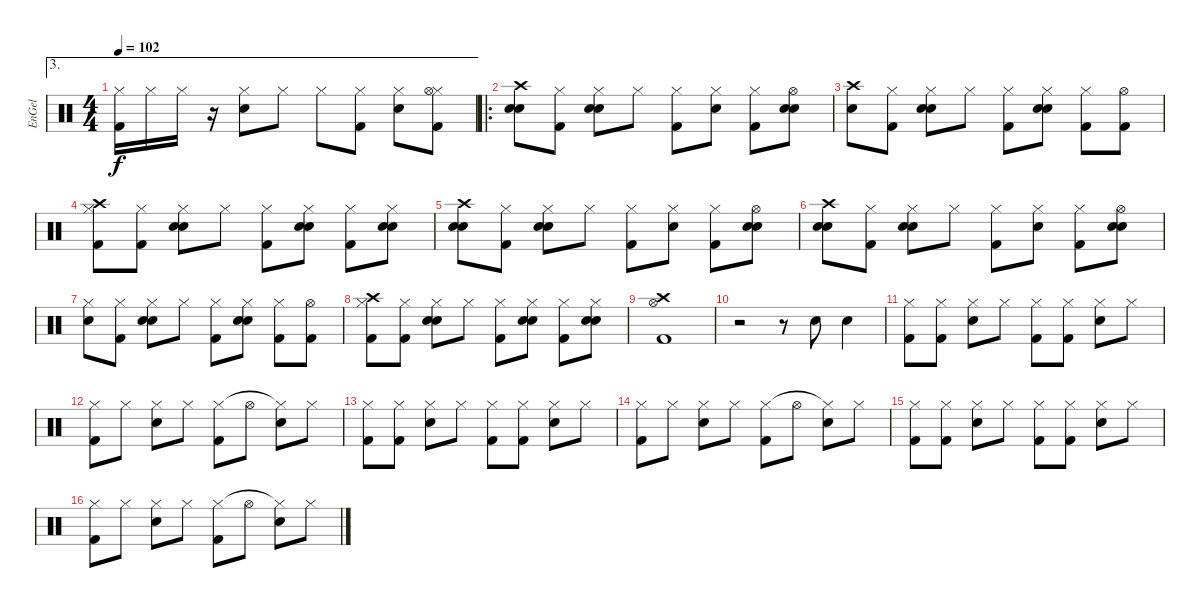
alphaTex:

\track ("EnGel" "EnGel") {instrument percussion}
\staff {score}
\articulation defaults
\ae 3
\ts (4 4)
\tempo 102
\clef neutral
\ks c
("Kick (hit) 2" "Hi-Hat (closed)").16{dy f} "Hi-Hat (closed)".16 "Hi-Hat (closed)".16 r.16 ("Snare (hit) 2" "Hi-Hat (closed)").8 "Hi-Hat (closed)".8 "Hi-Hat (closed)".8 ("Kick (hit) 2" "Hi-Hat (closed)").8 ("Snare (hit) 2" "Hi-Hat (closed)").8 ("Kick (hit) 2" "Hi-Hat (closed)" "Hi-Hat (open)").8 |
\ro
("Snare (hit) 2" "Crash high (hit)" "Electric Snare (hit)").8 ("Kick (hit) 2" "Hi-Hat (closed)").8 ("Electric Snare (hit)" "Hi-Hat (closed)" "Snare (hit) 2").8 "Hi-Hat (closed)".8 ("Kick (hit) 2" "Hi-Hat (closed)").8 ("Snare (hit) 2" "Hi-Hat (closed)").8 ("Kick (hit) 2" "Hi-Hat (closed)").8 ("Electric Snare (hit)" "Hi-Hat (open)" "Snare (hit) 2").8 |
("Snare (hit) 2" "Crash high (hit)").8 ("Kick (hit) 2" "Hi-Hat (closed)").8 ("Snare (hit) 2" "Hi-Hat (closed)" "Electric Snare (hit)").8 "Hi-Hat (closed)".8 ("Kick (hit) 2" "Hi-Hat (closed)").8 ("Snare (hit) 2" "Hi-Hat (closed)" "Electric Snare (hit)").8 ("Kick (hit) 2" "Hi-Hat (closed)").8 ("Kick (hit) 2" "Hi-Hat (open)").8 |
("Kick (hit) 2" "Hi-Hat (closed)" "Crash high (hit)").8 ("Kick (hit) 2" "Hi-Hat (closed)").8 ("Snare (hit) 2" "Hi-Hat (closed)" "Electric Snare (hit)").8 "Hi-Hat (closed)".8 ("Kick (hit) 2" "Hi-Hat (closed)").8 ("Snare (hit) 2" "Hi-Hat (closed)" "Electric Snare (hit)").8 ("Kick (hit) 2" "Hi-Hat (closed)").8 ("Snare (hit) 2" "Hi-Hat (closed)" "Electric Snare (hit)").8 |
("Snare (hit) 2" "Crash high (hit)" "Electric Snare (hit)").8 ("Kick (hit) 2" "Hi-Hat (closed)").8 ("Electric Snare (hit)" "Hi-Hat (closed)" "Snare (hit) 2").8 "Hi-Hat (closed)".8 ("Kick (hit) 2" "Hi-Hat (closed)").8 ("Snare (hit) 2" "Hi-Hat (closed)").8 ("Kick (hit) 2" "Hi-Hat (closed)").8 ("Electric Snare (hit)" "Hi-Hat (open)" "Snare (hit) 2").8 |
("Snare (hit) 2" "Crash high (hit)" "Electric Snare (hit)").8 ("Kick (hit) 2" "Hi-Hat (closed)").8 ("Electric Snare (hit)" "Hi-Hat (closed)" "Snare (hit) 2").8 "Hi-Hat (closed)".8 ("Kick (hit) 2" "Hi-Hat (closed)").8 ("Snare (hit) 2" "Hi-Hat (closed)").8 ("Kick (hit) 2" "Hi-Hat (closed)").8 ("Electric Snare (hit)" "Hi-Hat (open)" "Snare (hit) 2").8 |
("Snare (hit) 2" "Hi-Hat (closed)").8 ("Kick (hit) 2" "Hi-Hat (closed)").8 ("Snare (hit) 2" "Hi-Hat (closed)" "Electric Snare (hit)").8 "Hi-Hat (closed)".8 ("Kick (hit) 2" "Hi-Hat (closed)").8 ("Snare (hit) 2" "Hi-Hat (closed)" "Electric Snare (hit)").8 ("Kick (hit) 2" "Hi-Hat (closed)").8 ("Kick (hit) 2" "Hi-Hat (open)").8 |
("Kick (hit) 2" "Hi-Hat (closed)" "Crash high (hit)").8 ("Kick (hit) 2" "Hi-Hat (closed)").8 ("Snare (hit) 2" "Hi-Hat (closed)" "Electric Snare (hit)").8 "Hi-Hat (closed)".8 ("Kick (hit) 2" "Hi-Hat (closed)").8 ("Snare (hit) 2" "Hi-Hat (closed)" "Electric Snare (hit)").8 ("Kick (hit) 2" "Hi-Hat (closed)").8 ("Snare (hit) 2" "Hi-Hat (closed)" "Electric Snare (hit)").8 |
("Hi-Hat (open)" "Crash high (hit)" "Kick (hit) 2").1 |
r.2 r.8 "Electric Snare (hit)".8 "Electric Snare (hit)".4 |
("Kick (hit) 2" "Hi-Hat (closed)").8 ("Kick (hit) 2" "Hi-Hat (closed)").8 ("Snare (hit) 2" "Hi-Hat (closed)").8 "Hi-Hat (closed)".8 ("Kick (hit) 2" "Hi-Hat (closed)").8 ("Kick (hit) 2" "Hi-Hat (closed)").8 ("Snare (hit) 2" "Hi-Hat (closed)").8 "Hi-Hat (closed)".8 |
("Kick (hit) 2" "Hi-Hat (closed)").8 "Hi-Hat (closed)".8 ("Snare (hit) 2" "Hi-Hat (closed)").8 "Hi-Hat (closed)".8 ("Kick (hit) 2" "Hi-Hat (closed)").8 "Hi-Hat (open)".8 ("Snare (hit) 2" "Hi-Hat (closed)"{t}).8 "Hi-Hat (closed)".8 |
("Kick (hit) 2" "Hi-Hat (closed)").8 ("Kick (hit) 2" "Hi-Hat (closed)").8 ("Snare (hit) 2" "Hi-Hat (closed)").8 "Hi-Hat (closed)".8 ("Kick (hit) 2" "Hi-Hat (closed)").8 ("Kick (hit) 2" "Hi-Hat (closed)").8 ("Snare (hit) 2" "Hi-Hat (closed)").8 "Hi-Hat (closed)".8 |
("Kick (hit) 2" "Hi-Hat (closed)").8 "Hi-Hat (closed)".8 ("Snare (hit) 2" "Hi-Hat (closed)").8 "Hi-Hat (closed)".8 ("Kick (hit) 2" "Hi-Hat (closed)").8 "Hi-Hat (open)".8 ("Snare (hit) 2" "Hi-Hat (closed)"{t}).8 "Hi-Hat (closed)".8 |
("Kick (hit) 2" "Hi-Hat (closed)").8 ("Kick (hit) 2" "Hi-Hat (closed)").8 ("Snare (hit) 2" "Hi-Hat (closed)").8 "Hi-Hat (closed)".8 ("Kick (hit) 2" "Hi-Hat (closed)").8 ("Kick (hit) 2" "Hi-Hat (closed)").8 ("Snare (hit) 2" "Hi-Hat (closed)").8 "Hi-Hat (closed)".8 |
("Kick (hit) 2" "Hi-Hat (closed)").8 "Hi-Hat (closed)".8 ("Snare (hit) 2" "Hi-Hat (closed)").8 "Hi-Hat (closed)".8 ("Kick (hit) 2" "Hi-Hat (closed)").8 "Hi-Hat (open)".8 ("Snare (hit) 2" "Hi-Hat (closed)"{t}).8 "Hi-Hat (closed)".8
